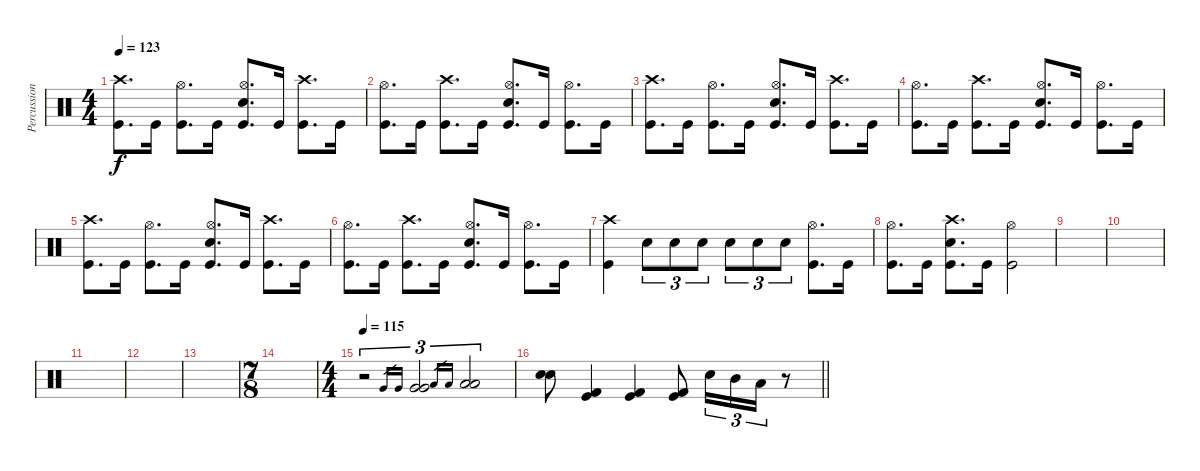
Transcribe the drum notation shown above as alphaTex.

\track ("Percussions" "Percussion") {instrument percussion}
\staff {score}
\articulation defaults
\ts (4 4)
\tempo 123
\clef neutral
\ks c
("Crash high (hit)" "Kick (hit)").8{d dy f} "Kick (hit)".16 ("Hi-Hat (open)" "Kick (hit)").8{d} "Kick (hit)".16 ("Hi-Hat (open)" "Electric Snare (hit)" "Kick (hit)").8{d} "Kick (hit)".16 ("Crash high (hit)" "Kick (hit)").8{d} "Kick (hit)".16 |
("Hi-Hat (open)" "Kick (hit)").8{d} "Kick (hit)".16 ("Crash high (hit)" "Kick (hit)").8{d} "Kick (hit)".16 ("Hi-Hat (open)" "Electric Snare (hit)" "Kick (hit)").8{d} "Kick (hit)".16 ("Hi-Hat (open)" "Kick (hit)").8{d} "Kick (hit)".16 |
("Crash high (hit)" "Kick (hit)").8{d} "Kick (hit)".16 ("Hi-Hat (open)" "Kick (hit)").8{d} "Kick (hit)".16 ("Hi-Hat (open)" "Electric Snare (hit)" "Kick (hit)").8{d} "Kick (hit)".16 ("Crash high (hit)" "Kick (hit)").8{d} "Kick (hit)".16 |
("Hi-Hat (open)" "Kick (hit)").8{d} "Kick (hit)".16 ("Crash high (hit)" "Kick (hit)").8{d} "Kick (hit)".16 ("Hi-Hat (open)" "Electric Snare (hit)" "Kick (hit)").8{d} "Kick (hit)".16 ("Hi-Hat (open)" "Kick (hit)").8{d} "Kick (hit)".16 |
("Crash high (hit)" "Kick (hit)").8{d} "Kick (hit)".16 ("Hi-Hat (open)" "Kick (hit)").8{d} "Kick (hit)".16 ("Hi-Hat (open)" "Electric Snare (hit)" "Kick (hit)").8{d} "Kick (hit)".16 ("Crash high (hit)" "Kick (hit)").8{d} "Kick (hit)".16 |
("Hi-Hat (open)" "Kick (hit)").8{d} "Kick (hit)".16 ("Crash high (hit)" "Kick (hit)").8{d} "Kick (hit)".16 ("Hi-Hat (open)" "Electric Snare (hit)" "Kick (hit)").8{d} "Kick (hit)".16 ("Hi-Hat (open)" "Kick (hit)").8{d} "Kick (hit)".16 |
("Crash high (hit)" "Kick (hit)").4 "Electric Snare (hit)".8{tu (3 2)} "Electric Snare (hit)".8{tu (3 2)} "Electric Snare (hit)".8{tu (3 2)} "Electric Snare (hit)".8{tu (3 2)} "Electric Snare (hit)".8{tu (3 2)} "Electric Snare (hit)".8{tu (3 2)} ("Hi-Hat (open)" "Kick (hit)").8{d} "Kick (hit)".16 |
("Hi-Hat (open)" "Kick (hit)").8{d} "Kick (hit)".16 ("Crash high (hit)" "Electric Snare (hit)" "Kick (hit)").8{d} "Kick (hit)".16 ("Hi-Hat (open)" "Kick (hit)").2 |
|
|
|
|
|
\ts (7 8)
|
\ts (4 4)
\tempo 115
r.2{tu (3 2)} "Very Low Tom (hit)".16{gr} "Very Low Tom (hit)".16{gr} ("Very Low Tom (hit)" "Very Low Tom (hit)").2{tu (3 2)} "Low Floor Tom (hit)".16{gr} "Low Floor Tom (hit)".16{gr} ("Low Floor Tom (hit)" "Low Floor Tom (hit)").2{tu (3 2)} |
\barLineRight lightlight
("Electric Snare (hit)" "Electric Snare (hit)").8 ("Kick (hit) 2" "Kick (hit)").4 ("Kick (hit) 2" "Kick (hit)").4 ("Kick (hit) 2" "Kick (hit)").8 "Electric Snare (hit)".16{tu (3 2)} "Mid Tom (hit)".16{tu (3 2)} "Low Tom (hit)".16{tu (3 2)} r.8
